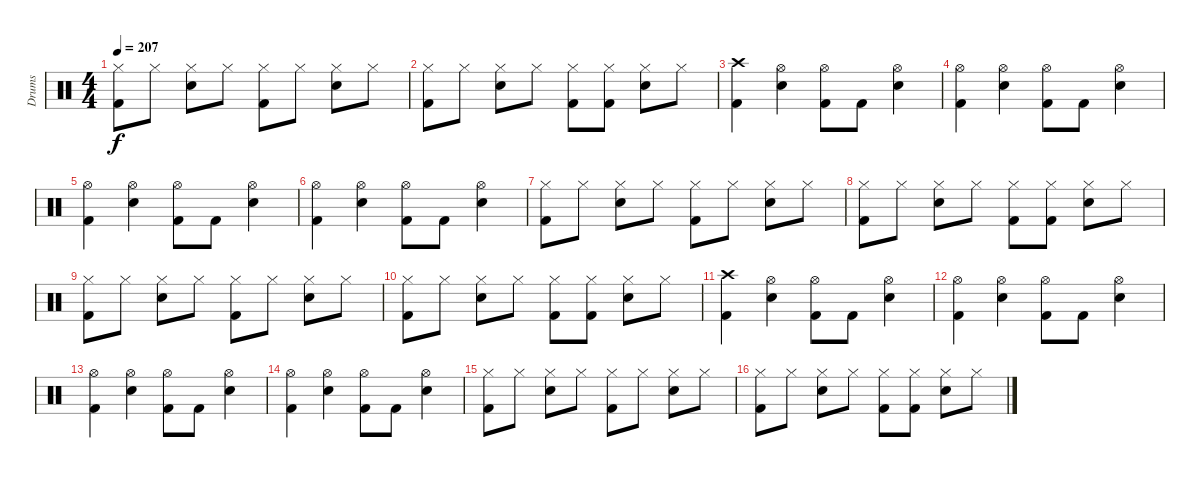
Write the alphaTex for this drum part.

\track ("Drums" "Drums") {instrument percussion}
\staff {score}
\articulation defaults
\ts (4 4)
\tempo 207
\clef neutral
\ks c
("Hi-Hat (closed)" "Kick (hit) 2").8{dy f} "Hi-Hat (closed)".8 ("Hi-Hat (closed)" "Electric Snare (hit)").8 "Hi-Hat (closed)".8 ("Hi-Hat (closed)" "Kick (hit) 2").8 "Hi-Hat (closed)".8 ("Hi-Hat (closed)" "Electric Snare (hit)").8 "Hi-Hat (closed)".8 |
("Hi-Hat (closed)" "Kick (hit) 2").8 "Hi-Hat (closed)".8 ("Hi-Hat (closed)" "Electric Snare (hit)").8 "Hi-Hat (closed)".8 ("Hi-Hat (closed)" "Kick (hit) 2").8 ("Hi-Hat (closed)" "Kick (hit) 2").8 ("Hi-Hat (closed)" "Electric Snare (hit)").8 "Hi-Hat (closed)".8 |
("Crash high (hit)" "Kick (hit) 2").4 ("Hi-Hat (open)" "Electric Snare (hit)").4 ("Hi-Hat (open)" "Kick (hit) 2").8 "Kick (hit) 2".8 ("Hi-Hat (open)" "Electric Snare (hit)").4 |
("Hi-Hat (open)" "Kick (hit) 2").4 ("Hi-Hat (open)" "Electric Snare (hit)").4 ("Hi-Hat (open)" "Kick (hit) 2").8 "Kick (hit) 2".8 ("Hi-Hat (open)" "Electric Snare (hit)").4 |
("Hi-Hat (open)" "Kick (hit) 2").4 ("Hi-Hat (open)" "Electric Snare (hit)").4 ("Hi-Hat (open)" "Kick (hit) 2").8 "Kick (hit) 2".8 ("Hi-Hat (open)" "Electric Snare (hit)").4 |
("Hi-Hat (open)" "Kick (hit) 2").4 ("Hi-Hat (open)" "Electric Snare (hit)").4 ("Hi-Hat (open)" "Kick (hit) 2").8 "Kick (hit) 2".8 ("Hi-Hat (open)" "Electric Snare (hit)").4 |
("Hi-Hat (closed)" "Kick (hit) 2").8 "Hi-Hat (closed)".8 ("Hi-Hat (closed)" "Electric Snare (hit)").8 "Hi-Hat (closed)".8 ("Hi-Hat (closed)" "Kick (hit) 2").8 "Hi-Hat (closed)".8 ("Hi-Hat (closed)" "Electric Snare (hit)").8 "Hi-Hat (closed)".8 |
("Hi-Hat (closed)" "Kick (hit) 2").8 "Hi-Hat (closed)".8 ("Hi-Hat (closed)" "Electric Snare (hit)").8 "Hi-Hat (closed)".8 ("Hi-Hat (closed)" "Kick (hit) 2").8 ("Hi-Hat (closed)" "Kick (hit) 2").8 ("Hi-Hat (closed)" "Electric Snare (hit)").8 "Hi-Hat (closed)".8 |
("Hi-Hat (closed)" "Kick (hit) 2").8 "Hi-Hat (closed)".8 ("Hi-Hat (closed)" "Electric Snare (hit)").8 "Hi-Hat (closed)".8 ("Hi-Hat (closed)" "Kick (hit) 2").8 "Hi-Hat (closed)".8 ("Hi-Hat (closed)" "Electric Snare (hit)").8 "Hi-Hat (closed)".8 |
("Hi-Hat (closed)" "Kick (hit) 2").8 "Hi-Hat (closed)".8 ("Hi-Hat (closed)" "Electric Snare (hit)").8 "Hi-Hat (closed)".8 ("Hi-Hat (closed)" "Kick (hit) 2").8 ("Hi-Hat (closed)" "Kick (hit) 2").8 ("Hi-Hat (closed)" "Electric Snare (hit)").8 "Hi-Hat (closed)".8 |
("Crash high (hit)" "Kick (hit) 2").4 ("Hi-Hat (open)" "Electric Snare (hit)").4 ("Hi-Hat (open)" "Kick (hit) 2").8 "Kick (hit) 2".8 ("Hi-Hat (open)" "Electric Snare (hit)").4 |
("Hi-Hat (open)" "Kick (hit) 2").4 ("Hi-Hat (open)" "Electric Snare (hit)").4 ("Hi-Hat (open)" "Kick (hit) 2").8 "Kick (hit) 2".8 ("Hi-Hat (open)" "Electric Snare (hit)").4 |
("Hi-Hat (open)" "Kick (hit) 2").4 ("Hi-Hat (open)" "Electric Snare (hit)").4 ("Hi-Hat (open)" "Kick (hit) 2").8 "Kick (hit) 2".8 ("Hi-Hat (open)" "Electric Snare (hit)").4 |
("Hi-Hat (open)" "Kick (hit) 2").4 ("Hi-Hat (open)" "Electric Snare (hit)").4 ("Hi-Hat (open)" "Kick (hit) 2").8 "Kick (hit) 2".8 ("Hi-Hat (open)" "Electric Snare (hit)").4 |
("Hi-Hat (closed)" "Kick (hit) 2").8 "Hi-Hat (closed)".8 ("Hi-Hat (closed)" "Electric Snare (hit)").8 "Hi-Hat (closed)".8 ("Hi-Hat (closed)" "Kick (hit) 2").8 "Hi-Hat (closed)".8 ("Hi-Hat (closed)" "Electric Snare (hit)").8 "Hi-Hat (closed)".8 |
("Hi-Hat (closed)" "Kick (hit) 2").8 "Hi-Hat (closed)".8 ("Hi-Hat (closed)" "Electric Snare (hit)").8 "Hi-Hat (closed)".8 ("Hi-Hat (closed)" "Kick (hit) 2").8 ("Hi-Hat (closed)" "Kick (hit) 2").8 ("Hi-Hat (closed)" "Electric Snare (hit)").8 "Hi-Hat (closed)".8
